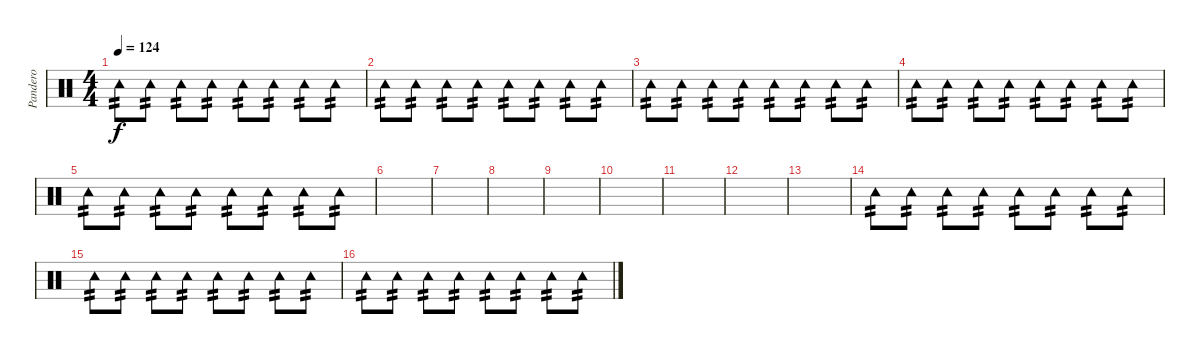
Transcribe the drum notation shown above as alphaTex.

\track ("Pandero" "Pandero") {instrument percussion}
\staff {score}
\articulation defaults
\ts (4 4)
\tempo 124
\clef neutral
\ks c "Tambourine (hit)".8{tp 2 dy f} "Tambourine (hit)".8{tp 2} "Tambourine (hit)".8{tp 2} "Tambourine (hit)".8{tp 2} "Tambourine (hit)".8{tp 2} "Tambourine (hit)".8{tp 2} "Tambourine (hit)".8{tp 2} "Tambourine (hit)".8{tp 2}
|
"Tambourine (hit)".8{tp 2} "Tambourine (hit)".8{tp 2} "Tambourine (hit)".8{tp 2} "Tambourine (hit)".8{tp 2} "Tambourine (hit)".8{tp 2} "Tambourine (hit)".8{tp 2} "Tambourine (hit)".8{tp 2} "Tambourine (hit)".8{tp 2} |
"Tambourine (hit)".8{tp 2} "Tambourine (hit)".8{tp 2} "Tambourine (hit)".8{tp 2} "Tambourine (hit)".8{tp 2} "Tambourine (hit)".8{tp 2} "Tambourine (hit)".8{tp 2} "Tambourine (hit)".8{tp 2} "Tambourine (hit)".8{tp 2} |
"Tambourine (hit)".8{tp 2} "Tambourine (hit)".8{tp 2} "Tambourine (hit)".8{tp 2} "Tambourine (hit)".8{tp 2} "Tambourine (hit)".8{tp 2} "Tambourine (hit)".8{tp 2} "Tambourine (hit)".8{tp 2} "Tambourine (hit)".8{tp 2} |
"Tambourine (hit)".8{tp 2} "Tambourine (hit)".8{tp 2} "Tambourine (hit)".8{tp 2} "Tambourine (hit)".8{tp 2} "Tambourine (hit)".8{tp 2} "Tambourine (hit)".8{tp 2} "Tambourine (hit)".8{tp 2} "Tambourine (hit)".8{tp 2} |
|
|
|
|
|
|
|
|
"Tambourine (hit)".8{tp 2} "Tambourine (hit)".8{tp 2} "Tambourine (hit)".8{tp 2} "Tambourine (hit)".8{tp 2} "Tambourine (hit)".8{tp 2} "Tambourine (hit)".8{tp 2} "Tambourine (hit)".8{tp 2} "Tambourine (hit)".8{tp 2} |
"Tambourine (hit)".8{tp 2} "Tambourine (hit)".8{tp 2} "Tambourine (hit)".8{tp 2} "Tambourine (hit)".8{tp 2} "Tambourine (hit)".8{tp 2} "Tambourine (hit)".8{tp 2} "Tambourine (hit)".8{tp 2} "Tambourine (hit)".8{tp 2} |
"Tambourine (hit)".8{tp 2} "Tambourine (hit)".8{tp 2} "Tambourine (hit)".8{tp 2} "Tambourine (hit)".8{tp 2} "Tambourine (hit)".8{tp 2} "Tambourine (hit)".8{tp 2} "Tambourine (hit)".8{tp 2} "Tambourine (hit)".8{tp 2}
